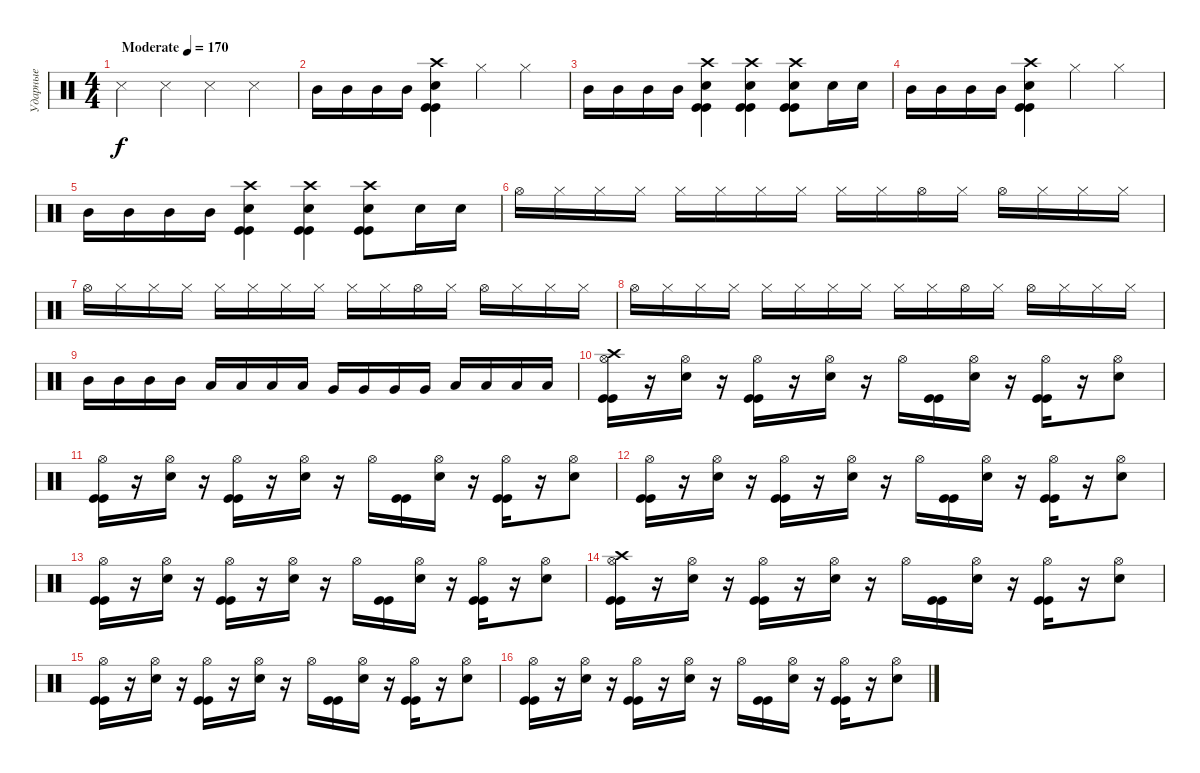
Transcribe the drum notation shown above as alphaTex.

\track ("Ударные" "Ударные") {instrument percussion}
\staff {score}
\articulation defaults
\ts (4 4)
\tempo (170 "Moderate")
\clef neutral
\ks c "Snare (side stick) 3".4{dy f} "Snare (side stick) 3".4 "Snare (side stick) 3".4 "Snare (side stick) 3".4
|
"Mid Tom (hit)".16 "Mid Tom (hit)".16 "Mid Tom (hit)".16 "Mid Tom (hit)".16 ("Crash high (hit)" "Electric Snare (hit)" "Kick (hit)" "Kick (hit)").4 "Hi-Hat (closed)".4 "Hi-Hat (closed)".4 |
"Mid Tom (hit)".16 "Mid Tom (hit)".16 "Mid Tom (hit)".16 "Mid Tom (hit)".16 ("Crash high (hit)" "Electric Snare (hit)" "Kick (hit)" "Kick (hit)").4 ("Crash high (hit)" "Electric Snare (hit)" "Kick (hit)" "Kick (hit)").4 ("Crash high (hit)" "Electric Snare (hit)" "Kick (hit)" "Kick (hit)").8 "Electric Snare (hit)".16 "Electric Snare (hit)".16 |
"Mid Tom (hit)".16 "Mid Tom (hit)".16 "Mid Tom (hit)".16 "Mid Tom (hit)".16 ("Crash high (hit)" "Electric Snare (hit)" "Kick (hit)" "Kick (hit)").4 "Hi-Hat (closed)".4 "Hi-Hat (closed)".4 |
"Mid Tom (hit)".16 "Mid Tom (hit)".16 "Mid Tom (hit)".16 "Mid Tom (hit)".16 ("Crash high (hit)" "Electric Snare (hit)" "Kick (hit)" "Kick (hit)").4 ("Crash high (hit)" "Electric Snare (hit)" "Kick (hit)" "Kick (hit)").4 ("Crash high (hit)" "Electric Snare (hit)" "Kick (hit)" "Kick (hit)").8 "Electric Snare (hit)".16 "Electric Snare (hit)".16 |
"Hi-Hat (open)".16 "Hi-Hat (closed)".16 "Hi-Hat (closed)".16 "Hi-Hat (closed)".16 "Hi-Hat (closed)".16 "Hi-Hat (closed)".16 "Hi-Hat (closed)".16 "Hi-Hat (closed)".16 "Hi-Hat (closed)".16 "Hi-Hat (closed)".16 "Hi-Hat (open)".16 "Hi-Hat (closed)".16 "Hi-Hat (open)".16 "Hi-Hat (closed)".16 "Hi-Hat (closed)".16 "Hi-Hat (closed)".16 |
"Hi-Hat (open)".16 "Hi-Hat (closed)".16 "Hi-Hat (closed)".16 "Hi-Hat (closed)".16 "Hi-Hat (closed)".16 "Hi-Hat (closed)".16 "Hi-Hat (closed)".16 "Hi-Hat (closed)".16 "Hi-Hat (closed)".16 "Hi-Hat (closed)".16 "Hi-Hat (open)".16 "Hi-Hat (closed)".16 "Hi-Hat (open)".16 "Hi-Hat (closed)".16 "Hi-Hat (closed)".16 "Hi-Hat (closed)".16 |
"Hi-Hat (open)".16 "Hi-Hat (closed)".16 "Hi-Hat (closed)".16 "Hi-Hat (closed)".16 "Hi-Hat (closed)".16 "Hi-Hat (closed)".16 "Hi-Hat (closed)".16 "Hi-Hat (closed)".16 "Hi-Hat (closed)".16 "Hi-Hat (closed)".16 "Hi-Hat (open)".16 "Hi-Hat (closed)".16 "Hi-Hat (open)".16 "Hi-Hat (closed)".16 "Hi-Hat (closed)".16 "Hi-Hat (closed)".16 |
"Mid Tom (hit)".16 "Mid Tom (hit)".16 "Mid Tom (hit)".16 "Mid Tom (hit)".16 "Low Tom (hit)".16 "Low Tom (hit)".16 "Low Tom (hit)".16 "Low Tom (hit)".16 "Very Low Tom (hit)".16 "Very Low Tom (hit)".16 "Very Low Tom (hit)".16 "Very Low Tom (hit)".16 "Low Floor Tom (hit)".16 "Low Floor Tom (hit)".16 "Low Floor Tom (hit)".16 "Low Floor Tom (hit)".16 |
("Crash high (hit)" "Hi-Hat (open)" "Kick (hit)" "Kick (hit)").16 r.16 ("Hi-Hat (open)" "Electric Snare (hit)").16 r.16 ("Hi-Hat (open)" "Kick (hit)" "Kick (hit)").16 r.16 ("Hi-Hat (open)" "Electric Snare (hit)").16 r.16 "Hi-Hat (open)".16 ("Kick (hit)" "Kick (hit)").16 ("Hi-Hat (open)" "Electric Snare (hit)").16 r.16 ("Hi-Hat (open)" "Kick (hit)" "Kick (hit)").16 r.16 ("Hi-Hat (open)" "Electric Snare (hit)").8 |
("Hi-Hat (open)" "Kick (hit)" "Kick (hit)").16 r.16 ("Hi-Hat (open)" "Electric Snare (hit)").16 r.16 ("Hi-Hat (open)" "Kick (hit)" "Kick (hit)").16 r.16 ("Hi-Hat (open)" "Electric Snare (hit)").16 r.16 "Hi-Hat (open)".16 ("Kick (hit)" "Kick (hit)").16 ("Hi-Hat (open)" "Electric Snare (hit)").16 r.16 ("Hi-Hat (open)" "Kick (hit)" "Kick (hit)").16 r.16 ("Hi-Hat (open)" "Electric Snare (hit)").8 |
("Hi-Hat (open)" "Kick (hit)" "Kick (hit)").16 r.16 ("Hi-Hat (open)" "Electric Snare (hit)").16 r.16 ("Hi-Hat (open)" "Kick (hit)" "Kick (hit)").16 r.16 ("Hi-Hat (open)" "Electric Snare (hit)").16 r.16 "Hi-Hat (open)".16 ("Kick (hit)" "Kick (hit)").16 ("Hi-Hat (open)" "Electric Snare (hit)").16 r.16 ("Hi-Hat (open)" "Kick (hit)" "Kick (hit)").16 r.16 ("Hi-Hat (open)" "Electric Snare (hit)").8 |
("Hi-Hat (open)" "Kick (hit)" "Kick (hit)").16 r.16 ("Hi-Hat (open)" "Electric Snare (hit)").16 r.16 ("Hi-Hat (open)" "Kick (hit)" "Kick (hit)").16 r.16 ("Hi-Hat (open)" "Electric Snare (hit)").16 r.16 "Hi-Hat (open)".16 ("Kick (hit)" "Kick (hit)").16 ("Hi-Hat (open)" "Electric Snare (hit)").16 r.16 ("Hi-Hat (open)" "Kick (hit)" "Kick (hit)").16 r.16 ("Hi-Hat (open)" "Electric Snare (hit)").8 |
("Crash high (hit)" "Hi-Hat (open)" "Kick (hit)" "Kick (hit)").16 r.16 ("Hi-Hat (open)" "Electric Snare (hit)").16 r.16 ("Hi-Hat (open)" "Kick (hit)" "Kick (hit)").16 r.16 ("Hi-Hat (open)" "Electric Snare (hit)").16 r.16 "Hi-Hat (open)".16 ("Kick (hit)" "Kick (hit)").16 ("Hi-Hat (open)" "Electric Snare (hit)").16 r.16 ("Hi-Hat (open)" "Kick (hit)" "Kick (hit)").16 r.16 ("Hi-Hat (open)" "Electric Snare (hit)").8 |
("Hi-Hat (open)" "Kick (hit)" "Kick (hit)").16 r.16 ("Hi-Hat (open)" "Electric Snare (hit)").16 r.16 ("Hi-Hat (open)" "Kick (hit)" "Kick (hit)").16 r.16 ("Hi-Hat (open)" "Electric Snare (hit)").16 r.16 "Hi-Hat (open)".16 ("Kick (hit)" "Kick (hit)").16 ("Hi-Hat (open)" "Electric Snare (hit)").16 r.16 ("Hi-Hat (open)" "Kick (hit)" "Kick (hit)").16 r.16 ("Hi-Hat (open)" "Electric Snare (hit)").8 |
("Hi-Hat (open)" "Kick (hit)" "Kick (hit)").16 r.16 ("Hi-Hat (open)" "Electric Snare (hit)").16 r.16 ("Hi-Hat (open)" "Kick (hit)" "Kick (hit)").16 r.16 ("Hi-Hat (open)" "Electric Snare (hit)").16 r.16 "Hi-Hat (open)".16 ("Kick (hit)" "Kick (hit)").16 ("Hi-Hat (open)" "Electric Snare (hit)").16 r.16 ("Hi-Hat (open)" "Kick (hit)" "Kick (hit)").16 r.16 ("Hi-Hat (open)" "Electric Snare (hit)").8
